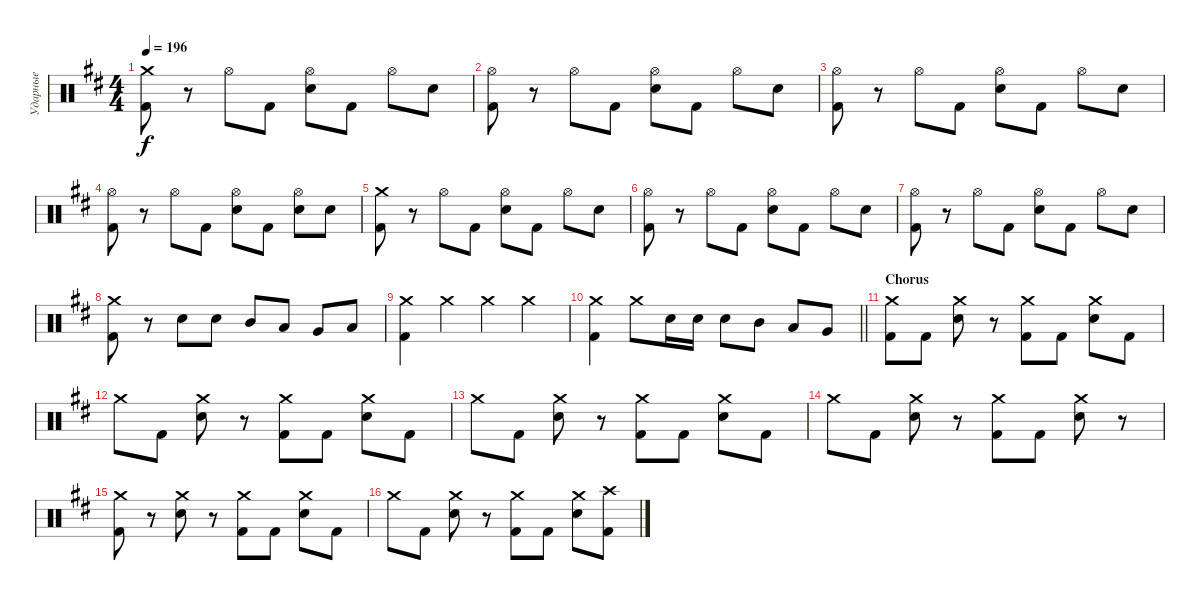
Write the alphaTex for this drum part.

\track ("Ударные" "Ударные") {instrument percussion}
\staff {score}
\articulation defaults
\ts (4 4)
\tempo 196
\clef neutral
\ks d
("Crash medium (hit)" "Kick (hit) 2").8{dy f} r.8 "Hi-Hat (open)".8 "Kick (hit) 2".8 ("Hi-Hat (open)" "Electric Snare (hit)").8 "Kick (hit) 2".8 "Hi-Hat (open)".8 "Electric Snare (hit)".8 |
("Hi-Hat (open)" "Kick (hit) 2").8 r.8 "Hi-Hat (open)".8 "Kick (hit) 2".8 ("Hi-Hat (open)" "Electric Snare (hit)").8 "Kick (hit) 2".8 "Hi-Hat (open)".8 "Electric Snare (hit)".8 |
("Hi-Hat (open)" "Kick (hit) 2").8 r.8 "Hi-Hat (open)".8 "Kick (hit) 2".8 ("Hi-Hat (open)" "Electric Snare (hit)").8 "Kick (hit) 2".8 "Hi-Hat (open)".8 "Electric Snare (hit)".8 |
("Hi-Hat (open)" "Kick (hit) 2").8 r.8 "Hi-Hat (open)".8 "Kick (hit) 2".8 ("Hi-Hat (open)" "Electric Snare (hit)").8 "Kick (hit) 2".8 ("Hi-Hat (open)" "Electric Snare (hit)").8 "Electric Snare (hit)".8 |
("Crash medium (hit)" "Kick (hit) 2").8 r.8 "Hi-Hat (open)".8 "Kick (hit) 2".8 ("Hi-Hat (open)" "Electric Snare (hit)").8 "Kick (hit) 2".8 "Hi-Hat (open)".8 "Electric Snare (hit)".8 |
("Hi-Hat (open)" "Kick (hit) 2").8 r.8 "Hi-Hat (open)".8 "Kick (hit) 2".8 ("Hi-Hat (open)" "Electric Snare (hit)").8 "Kick (hit) 2".8 "Hi-Hat (open)".8 "Electric Snare (hit)".8 |
("Hi-Hat (open)" "Kick (hit) 2").8 r.8 "Hi-Hat (open)".8 "Kick (hit) 2".8 ("Hi-Hat (open)" "Electric Snare (hit)").8 "Kick (hit) 2".8 "Hi-Hat (open)".8 "Electric Snare (hit)".8 |
("Crash medium (hit)" "Kick (hit) 2").8 r.8 "Electric Snare (hit)".8 "Electric Snare (hit)".8 "Mid Tom (hit)".8 "Low Tom (hit)".8 "Very Low Tom (hit)".8 "Low Floor Tom (hit)".8 |
("Crash medium (hit)" "Kick (hit) 2").4 "Crash medium (hit)".4 "Crash medium (hit)".4 "Crash medium (hit)".4 |
\barLineRight lightlight
("Crash medium (hit)" "Kick (hit) 2").4 "Crash medium (hit)".8 "Electric Snare (hit)".16 "Electric Snare (hit)".16 "Electric Snare (hit)".8 "Mid Tom (hit)".8 "Low Tom (hit)".8 "Very Low Tom (hit)".8 |
\section ("" "Chorus")
("Crash medium (hit)" "Kick (hit) 2").8 "Kick (hit) 2".8 ("Crash medium (hit)" "Electric Snare (hit)").8 r.8 ("Crash medium (hit)" "Kick (hit) 2").8 "Kick (hit) 2".8 ("Crash medium (hit)" "Electric Snare (hit)").8 "Kick (hit) 2".8 |
"Crash medium (hit)".8 "Kick (hit) 2".8 ("Crash medium (hit)" "Electric Snare (hit)").8 r.8 ("Crash medium (hit)" "Kick (hit) 2").8 "Kick (hit) 2".8 ("Crash medium (hit)" "Electric Snare (hit)").8 "Kick (hit) 2".8 |
"Crash medium (hit)".8 "Kick (hit) 2".8 ("Crash medium (hit)" "Electric Snare (hit)").8 r.8 ("Crash medium (hit)" "Kick (hit) 2").8 "Kick (hit) 2".8 ("Crash medium (hit)" "Electric Snare (hit)").8 "Kick (hit) 2".8 |
"Crash medium (hit)".8 "Kick (hit) 2".8 ("Crash medium (hit)" "Electric Snare (hit)").8 r.8 ("Crash medium (hit)" "Kick (hit) 2").8 "Kick (hit) 2".8 ("Crash medium (hit)" "Electric Snare (hit)").8 r.8 |
("Crash medium (hit)" "Kick (hit) 2").8 r.8 ("Crash medium (hit)" "Electric Snare (hit)").8 r.8 ("Crash medium (hit)" "Kick (hit) 2").8 "Kick (hit) 2".8 ("Crash medium (hit)" "Electric Snare (hit)").8 "Kick (hit) 2".8 |
"Crash medium (hit)".8 "Kick (hit) 2".8 ("Crash medium (hit)" "Electric Snare (hit)").8 r.8 ("Crash medium (hit)" "Kick (hit) 2").8 "Kick (hit) 2".8 ("Crash medium (hit)" "Electric Snare (hit)").8 ("Crash high (hit)" "Kick (hit) 2").8
